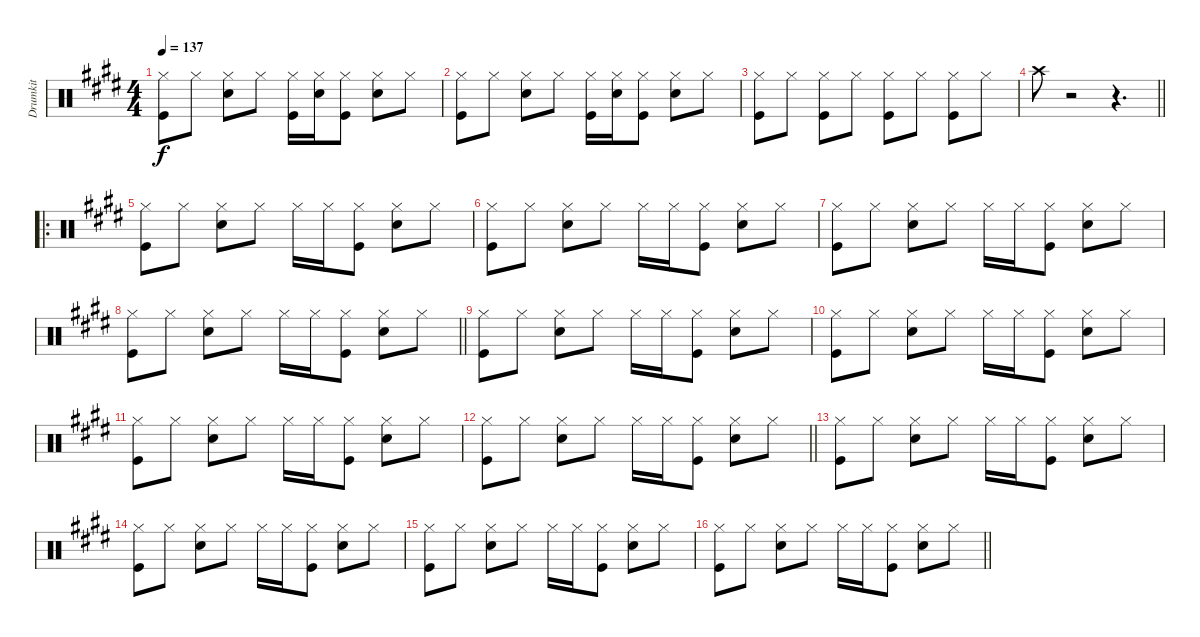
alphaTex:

\track ("Drumkit" "Drumkit") {instrument percussion}
\staff {score}
\articulation defaults
\ts (4 4)
\tempo 137
\clef neutral
\ks e
("Hi-Hat (closed)" "Kick (hit)").8{dy f} "Hi-Hat (closed)".8 ("Hi-Hat (closed)" "Snare (hit) 2").8 "Hi-Hat (closed)".8 ("Hi-Hat (closed)" "Kick (hit)").16 ("Hi-Hat (closed)" "Snare (hit) 2").16 ("Hi-Hat (closed)" "Kick (hit)").8 ("Hi-Hat (closed)" "Snare (hit) 2").8 "Hi-Hat (closed)".8 |
("Hi-Hat (closed)" "Kick (hit)").8 "Hi-Hat (closed)".8 ("Hi-Hat (closed)" "Snare (hit) 2").8 "Hi-Hat (closed)".8 ("Hi-Hat (closed)" "Kick (hit)").16 ("Hi-Hat (closed)" "Snare (hit) 2").16 ("Hi-Hat (closed)" "Kick (hit)").8 ("Hi-Hat (closed)" "Snare (hit) 2").8 "Hi-Hat (closed)".8 |
("Hi-Hat (closed)" "Kick (hit)").8 "Hi-Hat (closed)".8 ("Hi-Hat (closed)" "Kick (hit)").8 "Hi-Hat (closed)".8 ("Hi-Hat (closed)" "Kick (hit)").8 "Hi-Hat (closed)".8 ("Hi-Hat (closed)" "Kick (hit)").8 "Hi-Hat (closed)".8 |
\barLineRight lightlight "Crash high (hit)".8
r.2 r.4{d} |
\ro
("Hi-Hat (closed)" "Kick (hit)").8 "Hi-Hat (closed)".8 ("Hi-Hat (closed)" "Snare (hit) 2").8 "Hi-Hat (closed)".8 "Hi-Hat (closed)".16 "Hi-Hat (closed)".16 ("Hi-Hat (closed)" "Kick (hit)").8 ("Hi-Hat (closed)" "Snare (hit) 2").8 "Hi-Hat (closed)".8 |
("Hi-Hat (closed)" "Kick (hit)").8 "Hi-Hat (closed)".8 ("Hi-Hat (closed)" "Snare (hit) 2").8 "Hi-Hat (closed)".8 "Hi-Hat (closed)".16 "Hi-Hat (closed)".16 ("Hi-Hat (closed)" "Kick (hit)").8 ("Hi-Hat (closed)" "Snare (hit) 2").8 "Hi-Hat (closed)".8 |
("Hi-Hat (closed)" "Kick (hit)").8 "Hi-Hat (closed)".8 ("Hi-Hat (closed)" "Snare (hit) 2").8 "Hi-Hat (closed)".8 "Hi-Hat (closed)".16 "Hi-Hat (closed)".16 ("Hi-Hat (closed)" "Kick (hit)").8 ("Hi-Hat (closed)" "Snare (hit) 2").8 "Hi-Hat (closed)".8 |
\barLineRight lightlight
("Hi-Hat (closed)" "Kick (hit)").8 "Hi-Hat (closed)".8 ("Hi-Hat (closed)" "Snare (hit) 2").8 "Hi-Hat (closed)".8 "Hi-Hat (closed)".16 "Hi-Hat (closed)".16 ("Hi-Hat (closed)" "Kick (hit)").8 ("Hi-Hat (closed)" "Snare (hit) 2").8 "Hi-Hat (closed)".8 |
("Hi-Hat (closed)" "Kick (hit)").8 "Hi-Hat (closed)".8 ("Hi-Hat (closed)" "Snare (hit) 2").8 "Hi-Hat (closed)".8 "Hi-Hat (closed)".16 "Hi-Hat (closed)".16 ("Hi-Hat (closed)" "Kick (hit)").8 ("Hi-Hat (closed)" "Snare (hit) 2").8 "Hi-Hat (closed)".8 |
("Hi-Hat (closed)" "Kick (hit)").8 "Hi-Hat (closed)".8 ("Hi-Hat (closed)" "Snare (hit) 2").8 "Hi-Hat (closed)".8 "Hi-Hat (closed)".16 "Hi-Hat (closed)".16 ("Hi-Hat (closed)" "Kick (hit)").8 ("Hi-Hat (closed)" "Snare (hit) 2").8 "Hi-Hat (closed)".8 |
("Hi-Hat (closed)" "Kick (hit)").8 "Hi-Hat (closed)".8 ("Hi-Hat (closed)" "Snare (hit) 2").8 "Hi-Hat (closed)".8 "Hi-Hat (closed)".16 "Hi-Hat (closed)".16 ("Hi-Hat (closed)" "Kick (hit)").8 ("Hi-Hat (closed)" "Snare (hit) 2").8 "Hi-Hat (closed)".8 |
\barLineRight lightlight
("Hi-Hat (closed)" "Kick (hit)").8 "Hi-Hat (closed)".8 ("Hi-Hat (closed)" "Snare (hit) 2").8 "Hi-Hat (closed)".8 "Hi-Hat (closed)".16 "Hi-Hat (closed)".16 ("Hi-Hat (closed)" "Kick (hit)").8 ("Hi-Hat (closed)" "Snare (hit) 2").8 "Hi-Hat (closed)".8 |
("Hi-Hat (closed)" "Kick (hit)").8 "Hi-Hat (closed)".8 ("Hi-Hat (closed)" "Snare (hit) 2").8 "Hi-Hat (closed)".8 "Hi-Hat (closed)".16 "Hi-Hat (closed)".16 ("Hi-Hat (closed)" "Kick (hit)").8 ("Hi-Hat (closed)" "Snare (hit) 2").8 "Hi-Hat (closed)".8 |
("Hi-Hat (closed)" "Kick (hit)").8 "Hi-Hat (closed)".8 ("Hi-Hat (closed)" "Snare (hit) 2").8 "Hi-Hat (closed)".8 "Hi-Hat (closed)".16 "Hi-Hat (closed)".16 ("Hi-Hat (closed)" "Kick (hit)").8 ("Hi-Hat (closed)" "Snare (hit) 2").8 "Hi-Hat (closed)".8 |
("Hi-Hat (closed)" "Kick (hit)").8 "Hi-Hat (closed)".8 ("Hi-Hat (closed)" "Snare (hit) 2").8 "Hi-Hat (closed)".8 "Hi-Hat (closed)".16 "Hi-Hat (closed)".16 ("Hi-Hat (closed)" "Kick (hit)").8 ("Hi-Hat (closed)" "Snare (hit) 2").8 "Hi-Hat (closed)".8 |
\barLineRight lightlight
("Hi-Hat (closed)" "Kick (hit)").8 "Hi-Hat (closed)".8 ("Hi-Hat (closed)" "Snare (hit) 2").8 "Hi-Hat (closed)".8 "Hi-Hat (closed)".16 "Hi-Hat (closed)".16 ("Hi-Hat (closed)" "Kick (hit)").8 ("Hi-Hat (closed)" "Snare (hit) 2").8 "Hi-Hat (closed)".8
